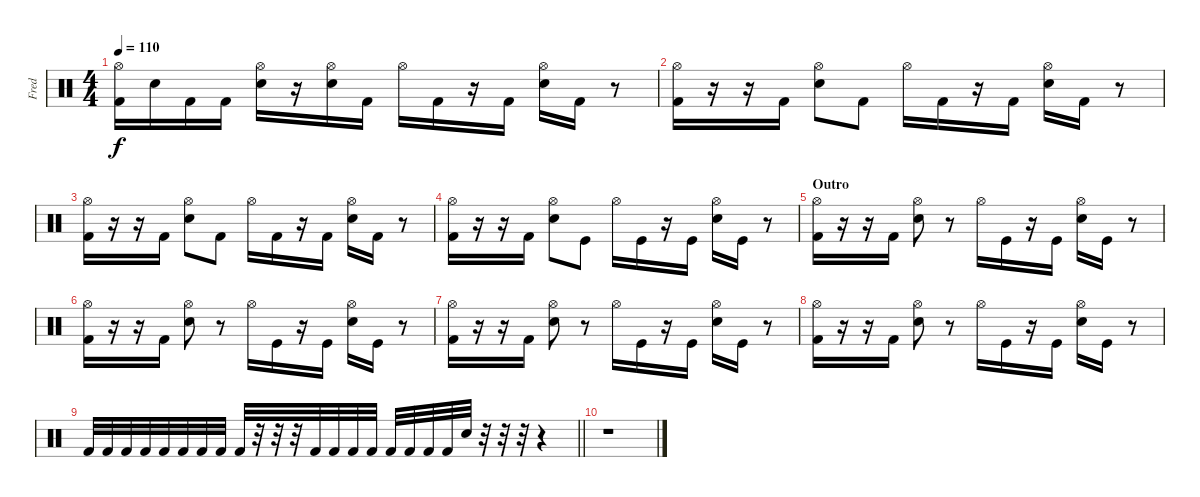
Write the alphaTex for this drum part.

\track ("Fred" "Fred") {instrument percussion}
\staff {score}
\articulation defaults
\ts (4 4)
\tempo 110
\clef neutral
\ks c
("Hi-Hat (open)" "Kick (hit) 2").16{dy f} "Electric Snare (hit)".16 "Kick (hit) 2".16 "Kick (hit) 2".16 ("Hi-Hat (open)" "Electric Snare (hit)").16 r.16 ("Hi-Hat (open)" "Electric Snare (hit)").16 "Kick (hit) 2".16 "Hi-Hat (open)".16 "Kick (hit) 2".16 r.16 "Kick (hit) 2".16 ("Hi-Hat (open)" "Electric Snare (hit)").16 "Kick (hit) 2".16 r.8 |
("Hi-Hat (open)" "Kick (hit) 2").16 r.16 r.16 "Kick (hit) 2".16 ("Hi-Hat (open)" "Electric Snare (hit)").8 "Kick (hit) 2".8 "Hi-Hat (open)".16 "Kick (hit) 2".16 r.16 "Kick (hit) 2".16 ("Hi-Hat (open)" "Electric Snare (hit)").16 "Kick (hit) 2".16 r.8 |
("Hi-Hat (open)" "Kick (hit) 2").16 r.16 r.16 "Kick (hit) 2".16 ("Hi-Hat (open)" "Electric Snare (hit)").8 "Kick (hit) 2".8 "Hi-Hat (open)".16 "Kick (hit) 2".16 r.16 "Kick (hit) 2".16 ("Hi-Hat (open)" "Electric Snare (hit)").16 "Kick (hit) 2".16 r.8 |
("Hi-Hat (open)" "Kick (hit) 2").16 r.16 r.16 "Kick (hit) 2".16 ("Hi-Hat (open)" "Electric Snare (hit)").8 "Kick (hit)".8 "Hi-Hat (open)".16 "Kick (hit)".16 r.16 "Kick (hit)".16 ("Hi-Hat (open)" "Electric Snare (hit)").16 "Kick (hit)".16 r.8 |
\section ("" "Outro")
("Hi-Hat (open)" "Kick (hit) 2").16 r.16 r.16 "Kick (hit) 2".16 ("Hi-Hat (open)" "Electric Snare (hit)").8 r.8 "Hi-Hat (open)".16 "Kick (hit)".16 r.16 "Kick (hit)".16 ("Hi-Hat (open)" "Electric Snare (hit)").16 "Kick (hit)".16 r.8 |
("Hi-Hat (open)" "Kick (hit) 2").16 r.16 r.16 "Kick (hit) 2".16 ("Hi-Hat (open)" "Electric Snare (hit)").8 r.8 "Hi-Hat (open)".16 "Kick (hit)".16 r.16 "Kick (hit)".16 ("Hi-Hat (open)" "Electric Snare (hit)").16 "Kick (hit)".16 r.8 |
("Hi-Hat (open)" "Kick (hit) 2").16 r.16 r.16 "Kick (hit) 2".16 ("Hi-Hat (open)" "Electric Snare (hit)").8 r.8 "Hi-Hat (open)".16 "Kick (hit)".16 r.16 "Kick (hit)".16 ("Hi-Hat (open)" "Electric Snare (hit)").16 "Kick (hit)".16 r.8 |
("Hi-Hat (open)" "Kick (hit) 2").16 r.16 r.16 "Kick (hit) 2".16 ("Hi-Hat (open)" "Electric Snare (hit)").8 r.8 "Hi-Hat (open)".16 "Kick (hit)".16 r.16 "Kick (hit)".16 ("Hi-Hat (open)" "Electric Snare (hit)").16 "Kick (hit)".16 r.8 |
\barLineRight lightlight "Kick (hit) 2".32 "Kick (hit) 2".32 "Kick (hit) 2".32 "Kick (hit) 2".32 "Kick (hit) 2".32 "Kick (hit) 2".32 "Kick (hit) 2".32 "Kick (hit) 2".32 "Kick (hit) 2".32
r.32 r.32 r.32 "Kick (hit) 2".32 "Kick (hit) 2".32 "Kick (hit) 2".32 "Kick (hit) 2".32 "Kick (hit) 2".32 "Kick (hit) 2".32 "Kick (hit) 2".32 "Kick (hit) 2".32 "Electric Snare (hit)".32 r.32 r.32 r.32 r.4 |
r.1
